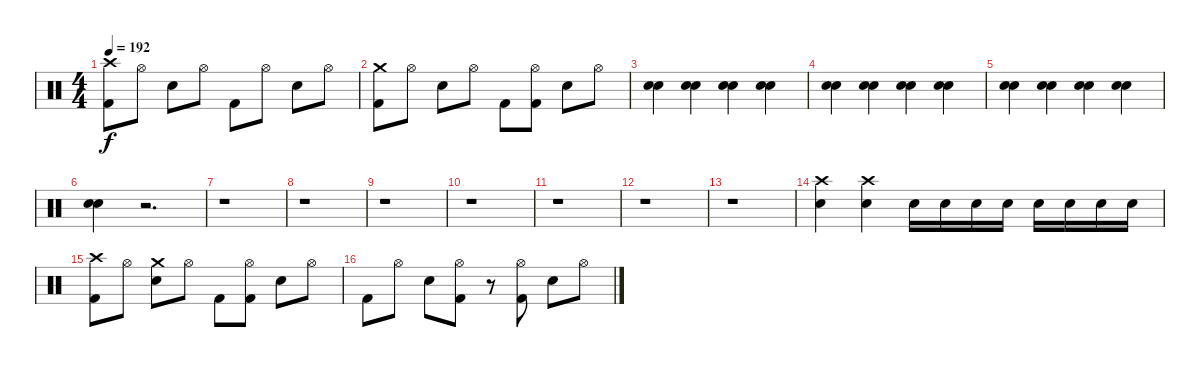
\track "" {instrument percussion}
\staff {score}
\articulation defaults
\ts (4 4)
\tempo 192
\clef neutral
\ks c
("Crash high (hit)" "Kick (hit) 2").8{dy f} "Hi-Hat (open)".8 "Snare (hit) 2".8 "Hi-Hat (open)".8 "Kick (hit) 2".8 "Hi-Hat (open)".8 "Snare (hit) 2".8 "Hi-Hat (open)".8 |
("Crash medium (hit)" "Kick (hit) 2").8 "Hi-Hat (open)".8 "Snare (hit) 2".8 "Hi-Hat (open)".8 "Kick (hit) 2".8 ("Hi-Hat (open)" "Kick (hit) 2").8 "Snare (hit) 2".8 "Hi-Hat (open)".8 |
("Electric Snare (hit)" "Snare (hit) 2").4 ("Electric Snare (hit)" "Snare (hit) 2").4 ("Electric Snare (hit)" "Snare (hit) 2").4 ("Electric Snare (hit)" "Snare (hit) 2").4 |
("Electric Snare (hit)" "Snare (hit) 2").4 ("Electric Snare (hit)" "Snare (hit) 2").4 ("Electric Snare (hit)" "Snare (hit) 2").4 ("Electric Snare (hit)" "Snare (hit) 2").4 |
("Electric Snare (hit)" "Snare (hit) 2").4 ("Electric Snare (hit)" "Snare (hit) 2").4 ("Electric Snare (hit)" "Snare (hit) 2").4 ("Electric Snare (hit)" "Snare (hit) 2").4 |
("Electric Snare (hit)" "Snare (hit) 2").4 r.2{d} |
r.1 |
r.1 |
r.1 |
r.1 |
r.1 |
r.1 |
r.1 |
("Crash high (hit)" "Snare (hit) 2").4 ("Crash high (hit)" "Snare (hit) 2").4 "Electric Snare (hit)".16 "Electric Snare (hit)".16 "Electric Snare (hit)".16 "Electric Snare (hit)".16 "Snare (hit) 2".16 "Snare (hit) 2".16 "Snare (hit) 2".16 "Snare (hit) 2".16 |
("Crash high (hit)" "Kick (hit) 2").8 "Hi-Hat (open)".8 ("Crash medium (hit)" "Snare (hit) 2").8 "Hi-Hat (open)".8 "Kick (hit) 2".8 ("Hi-Hat (open)" "Kick (hit) 2").8 "Snare (hit) 2".8 "Hi-Hat (open)".8 |
"Kick (hit) 2".8 "Hi-Hat (open)".8 "Snare (hit) 2".8 ("Hi-Hat (open)" "Kick (hit) 2").8 r.8 ("Hi-Hat (open)" "Kick (hit) 2").8 "Snare (hit) 2".8 "Hi-Hat (open)".8
